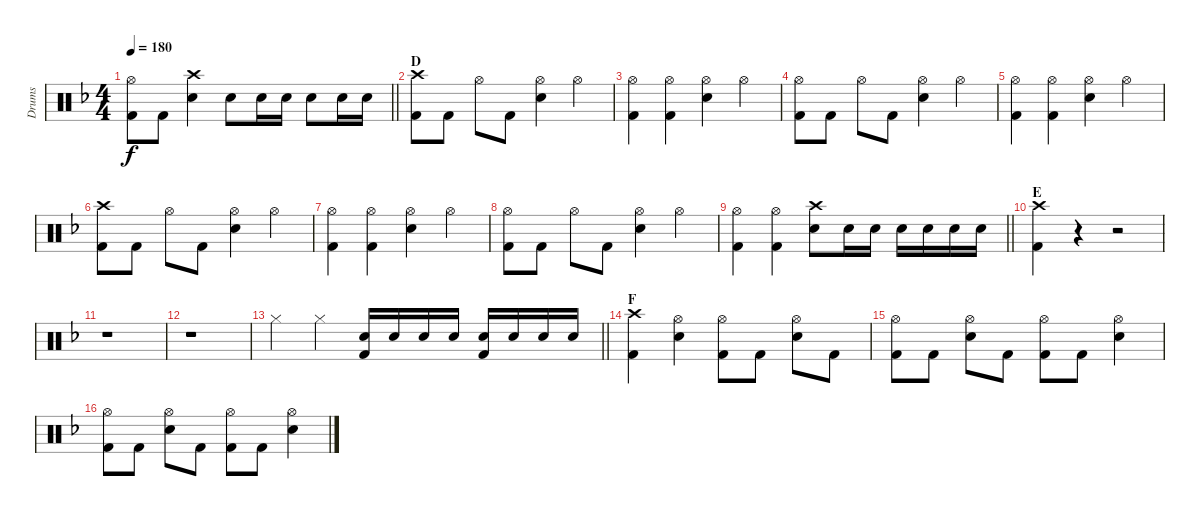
\track ("Drums" "Drums") {instrument percussion}
\staff {score}
\articulation defaults
\ts (4 4)
\tempo 180
\clef neutral
\barLineRight lightlight
\ks dminor
("Hi-Hat (open)" "Kick (hit) 2").8{dy f} "Kick (hit) 2".8 ("Crash high (hit)" "Snare (hit) 2").4 "Snare (hit) 2".8 "Snare (hit) 2".16 "Snare (hit) 2".16 "Snare (hit) 2".8 "Snare (hit) 2".16 "Snare (hit) 2".16 |
\section ("" "D")
("Crash high (hit)" "Kick (hit) 2").8 "Kick (hit) 2".8 "Hi-Hat (open)".8 "Kick (hit) 2".8 ("Hi-Hat (open)" "Snare (hit) 2").4 "Hi-Hat (open)".4 |
("Hi-Hat (open)" "Kick (hit) 2").4 ("Hi-Hat (open)" "Kick (hit) 2").4 ("Hi-Hat (open)" "Snare (hit) 2").4 "Hi-Hat (open)".4 |
("Hi-Hat (open)" "Kick (hit) 2").8 "Kick (hit) 2".8 "Hi-Hat (open)".8 "Kick (hit) 2".8 ("Hi-Hat (open)" "Snare (hit) 2").4 "Hi-Hat (open)".4 |
("Hi-Hat (open)" "Kick (hit) 2").4 ("Hi-Hat (open)" "Kick (hit) 2").4 ("Hi-Hat (open)" "Snare (hit) 2").4 "Hi-Hat (open)".4 |
("Crash high (hit)" "Kick (hit) 2").8 "Kick (hit) 2".8 "Hi-Hat (open)".8 "Kick (hit) 2".8 ("Hi-Hat (open)" "Snare (hit) 2").4 "Hi-Hat (open)".4 |
("Hi-Hat (open)" "Kick (hit) 2").4 ("Hi-Hat (open)" "Kick (hit) 2").4 ("Hi-Hat (open)" "Snare (hit) 2").4 "Hi-Hat (open)".4 |
("Hi-Hat (open)" "Kick (hit) 2").8 "Kick (hit) 2".8 "Hi-Hat (open)".8 "Kick (hit) 2".8 ("Hi-Hat (open)" "Snare (hit) 2").4 "Hi-Hat (open)".4 |
\barLineRight lightlight
("Hi-Hat (open)" "Kick (hit) 2").4 ("Hi-Hat (open)" "Kick (hit) 2").4 ("Crash high (hit)" "Snare (hit) 2").8 "Snare (hit) 2".16 "Snare (hit) 2".16 "Snare (hit) 2".16 "Snare (hit) 2".16 "Snare (hit) 2".16 "Snare (hit) 2".16 |
\section ("" "E")
("Crash high (hit)" "Kick (hit) 2").4 r.4 r.2 |
r.1 |
r.1 |
\barLineRight lightlight "Hi-Hat (closed)".4 "Hi-Hat (closed)".4
("Snare (hit) 2" "Kick (hit) 2").16 "Snare (hit) 2".16 "Snare (hit) 2".16 "Snare (hit) 2".16 ("Snare (hit) 2" "Kick (hit) 2").16 "Snare (hit) 2".16 "Snare (hit) 2".16 "Snare (hit) 2".16 |
\section ("" "F")
("Crash high (hit)" "Kick (hit) 2").4 ("Hi-Hat (open)" "Snare (hit) 2").4 ("Hi-Hat (open)" "Kick (hit) 2").8 "Kick (hit) 2".8 ("Hi-Hat (open)" "Snare (hit) 2").8 "Kick (hit) 2".8 |
("Hi-Hat (open)" "Kick (hit) 2").8 "Kick (hit) 2".8 ("Hi-Hat (open)" "Snare (hit) 2").8 "Kick (hit) 2".8 ("Hi-Hat (open)" "Kick (hit) 2").8 "Kick (hit) 2".8 ("Hi-Hat (open)" "Snare (hit) 2").4 |
("Hi-Hat (open)" "Kick (hit) 2").8 "Kick (hit) 2".8 ("Hi-Hat (open)" "Snare (hit) 2").8 "Kick (hit) 2".8 ("Hi-Hat (open)" "Kick (hit) 2").8 "Kick (hit) 2".8 ("Hi-Hat (open)" "Snare (hit) 2").4
